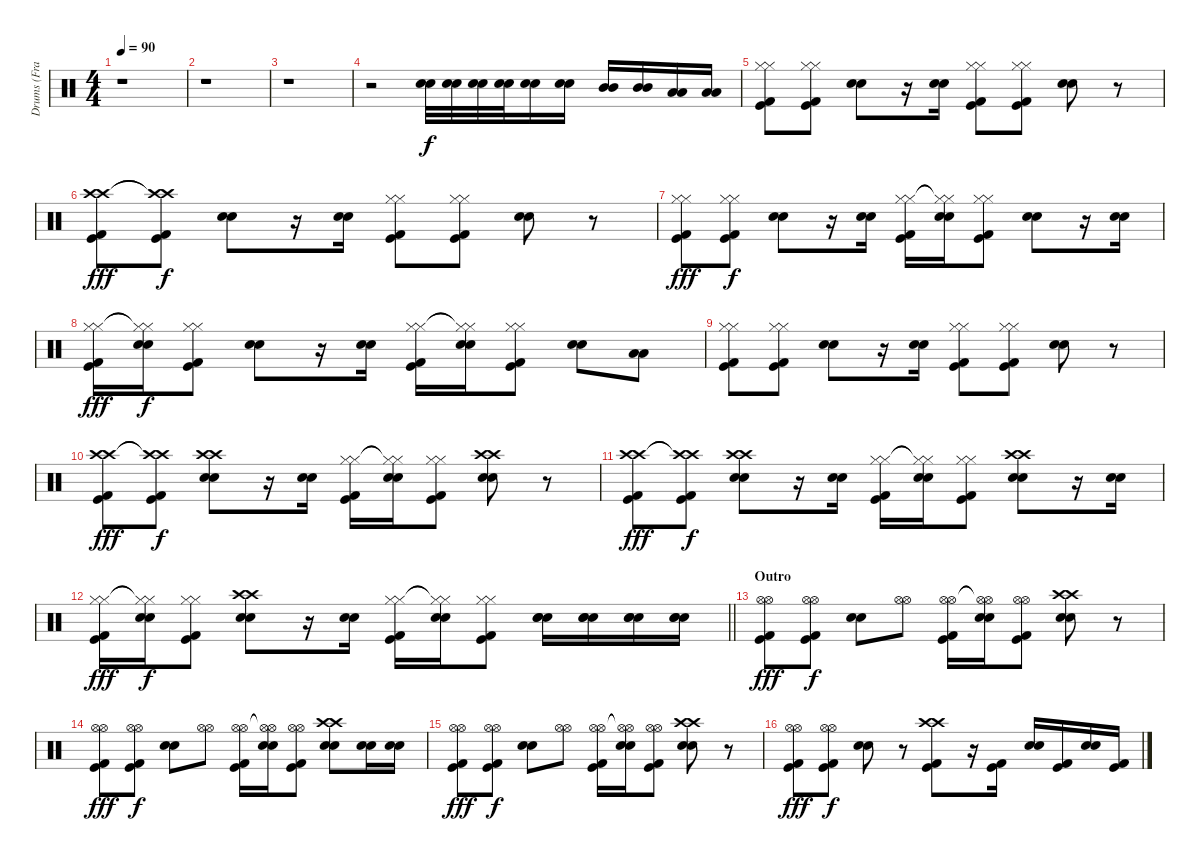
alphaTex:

\track ("Drums (Frank Ferrer)" "Drums (Fra") {instrument percussion}
\staff {score}
\articulation defaults
\ts (4 4)
\tempo 90
\clef neutral
\ks c
r.1{dy f} |
r.1 |
r.1 |
r.2 ("Snare (hit) 2" "Snare (hit) 2").32{volume 16} ("Snare (hit) 2" "Snare (hit) 2").32 ("Snare (hit) 2" "Snare (hit) 2").32 ("Snare (hit) 2" "Snare (hit) 2").32 ("Snare (hit) 2" "Snare (hit) 2").16 ("Snare (hit) 2" "Snare (hit) 2").16 ("Mid Tom (hit)" "Mid Tom (hit)").16 ("Mid Tom (hit)" "Mid Tom (hit)").16 ("Low Tom (hit)" "Low Tom (hit)").16 ("Low Tom (hit)" "Low Tom (hit)").16 |
("Hi-Hat (closed)" "Hi-Hat (closed)" "Kick (hit)" "Kick (hit) 2").8{volume 13} ("Hi-Hat (closed)" "Hi-Hat (closed)" "Kick (hit)" "Kick (hit) 2").8 ("Snare (hit) 2" "Snare (hit) 2").8 r.16 ("Snare (hit) 2" "Snare (hit) 2").16 ("Hi-Hat (closed)" "Hi-Hat (closed)" "Kick (hit)" "Kick (hit) 2").8 ("Hi-Hat (closed)" "Hi-Hat (closed)" "Kick (hit)" "Kick (hit) 2").8 ("Snare (hit) 2" "Snare (hit) 2").8 r.8 |
("Crash high (hit)" "Crash high (hit)" "Kick (hit)" "Kick (hit) 2").8{dy fff} ("Crash high (hit)"{t} "Crash high (hit)"{t} "Kick (hit)" "Kick (hit) 2").8{dy f} ("Snare (hit) 2" "Snare (hit) 2").8 r.16 ("Snare (hit) 2" "Snare (hit) 2").16 ("Hi-Hat (closed)" "Hi-Hat (closed)" "Kick (hit)" "Kick (hit) 2").8 ("Hi-Hat (closed)" "Hi-Hat (closed)" "Kick (hit)" "Kick (hit) 2").8 ("Snare (hit) 2" "Snare (hit) 2").8 r.8 |
("Hi-Hat (closed)" "Hi-Hat (closed)" "Kick (hit)" "Kick (hit) 2").8{dy fff} ("Hi-Hat (closed)" "Hi-Hat (closed)" "Kick (hit)" "Kick (hit) 2").8{dy f} ("Snare (hit) 2" "Snare (hit) 2").8 r.16 ("Snare (hit) 2" "Snare (hit) 2").16 ("Hi-Hat (closed)" "Hi-Hat (closed)" "Kick (hit)" "Kick (hit) 2").16 ("Hi-Hat (closed)"{t} "Hi-Hat (closed)"{t} "Snare (hit) 2" "Snare (hit) 2").16 ("Hi-Hat (closed)" "Hi-Hat (closed)" "Kick (hit)" "Kick (hit) 2").8 ("Snare (hit) 2" "Snare (hit) 2").8 r.16 ("Snare (hit) 2" "Snare (hit) 2").16 |
("Hi-Hat (closed)" "Hi-Hat (closed)" "Kick (hit)" "Kick (hit) 2").16{dy fff} ("Hi-Hat (closed)"{t} "Hi-Hat (closed)"{t} "Snare (hit) 2" "Snare (hit) 2").16{dy f} ("Hi-Hat (closed)" "Hi-Hat (closed)" "Kick (hit)" "Kick (hit) 2").8 ("Snare (hit) 2" "Snare (hit) 2").8 r.16 ("Snare (hit) 2" "Snare (hit) 2").16 ("Hi-Hat (closed)" "Hi-Hat (closed)" "Kick (hit)" "Kick (hit) 2").16 ("Hi-Hat (closed)"{t} "Hi-Hat (closed)"{t} "Snare (hit) 2" "Snare (hit) 2").16 ("Hi-Hat (closed)" "Hi-Hat (closed)" "Kick (hit)" "Kick (hit) 2").8 ("Snare (hit) 2" "Snare (hit) 2").8 ("Low Tom (hit)" "Low Tom (hit)").8 |
("Hi-Hat (closed)" "Hi-Hat (closed)" "Kick (hit)" "Kick (hit) 2").8 ("Hi-Hat (closed)" "Hi-Hat (closed)" "Kick (hit)" "Kick (hit) 2").8 ("Snare (hit) 2" "Snare (hit) 2").8 r.16 ("Snare (hit) 2" "Snare (hit) 2").16 ("Hi-Hat (closed)" "Hi-Hat (closed)" "Kick (hit)" "Kick (hit) 2").8 ("Hi-Hat (closed)" "Hi-Hat (closed)" "Kick (hit)" "Kick (hit) 2").8 ("Snare (hit) 2" "Snare (hit) 2").8 r.8 |
("Crash high (hit)" "Crash high (hit)" "Kick (hit)" "Kick (hit) 2").8{dy fff} ("Crash high (hit)"{t} "Crash high (hit)"{t} "Kick (hit)" "Kick (hit) 2").8{dy f} ("Crash high (hit)" "Crash high (hit)" "Snare (hit) 2" "Snare (hit) 2").8 r.16 ("Snare (hit) 2" "Snare (hit) 2").16 ("Hi-Hat (closed)" "Hi-Hat (closed)" "Kick (hit)" "Kick (hit) 2").16 ("Hi-Hat (closed)"{t} "Hi-Hat (closed)"{t} "Snare (hit) 2" "Snare (hit) 2").16 ("Hi-Hat (closed)" "Hi-Hat (closed)" "Kick (hit)" "Kick (hit) 2").8 ("Crash high (hit)" "Crash high (hit)" "Snare (hit) 2" "Snare (hit) 2").8 r.8 |
("Crash high (hit)" "Crash high (hit)" "Kick (hit)" "Kick (hit) 2").8{dy fff} ("Crash high (hit)"{t} "Crash high (hit)"{t} "Kick (hit)" "Kick (hit) 2").8{dy f} ("Crash high (hit)" "Crash high (hit)" "Snare (hit) 2" "Snare (hit) 2").8 r.16 ("Snare (hit) 2" "Snare (hit) 2").16 ("Hi-Hat (closed)" "Hi-Hat (closed)" "Kick (hit)" "Kick (hit) 2").16 ("Hi-Hat (closed)"{t} "Hi-Hat (closed)"{t} "Snare (hit) 2" "Snare (hit) 2").16 ("Hi-Hat (closed)" "Hi-Hat (closed)" "Kick (hit)" "Kick (hit) 2").8 ("Crash high (hit)" "Crash high (hit)" "Snare (hit) 2" "Snare (hit) 2").8 r.16 ("Snare (hit) 2" "Snare (hit) 2").16 |
\barLineRight lightlight
("Hi-Hat (closed)" "Hi-Hat (closed)" "Kick (hit)" "Kick (hit) 2").16{dy fff} ("Hi-Hat (closed)"{t} "Hi-Hat (closed)"{t} "Snare (hit) 2" "Snare (hit) 2").16{dy f} ("Hi-Hat (closed)" "Hi-Hat (closed)" "Kick (hit)" "Kick (hit) 2").8 ("Crash high (hit)" "Crash high (hit)" "Snare (hit) 2" "Snare (hit) 2").8 r.16 ("Snare (hit) 2" "Snare (hit) 2").16 ("Hi-Hat (closed)" "Hi-Hat (closed)" "Kick (hit)" "Kick (hit) 2").16 ("Hi-Hat (closed)"{t} "Hi-Hat (closed)"{t} "Snare (hit) 2" "Snare (hit) 2").16 ("Hi-Hat (closed)" "Hi-Hat (closed)" "Kick (hit)" "Kick (hit) 2").8 ("Snare (hit) 2" "Snare (hit) 2" "Snare (hit) 2").16 ("Snare (hit) 2" "Snare (hit) 2" "Snare (hit) 2").16 ("Snare (hit) 2" "Snare (hit) 2" "Snare (hit) 2").16 ("Snare (hit) 2" "Snare (hit) 2" "Snare (hit) 2").16 |
\section ("" "Outro")
("Hi-Hat (open)" "Hi-Hat (open)" "Kick (hit)" "Kick (hit) 2").8{dy fff volume 13} ("Hi-Hat (open)" "Hi-Hat (open)" "Kick (hit)" "Kick (hit) 2").8{dy f} ("Snare (hit) 2" "Snare (hit) 2").8 ("Hi-Hat (open)" "Hi-Hat (open)").8 ("Hi-Hat (open)" "Hi-Hat (open)" "Kick (hit)" "Kick (hit) 2").16 ("Hi-Hat (open)"{t} "Hi-Hat (open)"{t} "Snare (hit) 2" "Snare (hit) 2").16 ("Hi-Hat (open)" "Hi-Hat (open)" "Kick (hit)" "Kick (hit) 2").8 ("Crash high (hit)" "Crash high (hit)" "Snare (hit) 2" "Snare (hit) 2").8 r.8 |
("Hi-Hat (open)" "Hi-Hat (open)" "Kick (hit)" "Kick (hit) 2").8{dy fff} ("Hi-Hat (open)" "Hi-Hat (open)" "Kick (hit)" "Kick (hit) 2").8{dy f} ("Snare (hit) 2" "Snare (hit) 2").8 ("Hi-Hat (open)" "Hi-Hat (open)").8 ("Hi-Hat (open)" "Hi-Hat (open)" "Kick (hit)" "Kick (hit) 2").16 ("Hi-Hat (open)"{t} "Hi-Hat (open)"{t} "Snare (hit) 2" "Snare (hit) 2").16 ("Hi-Hat (open)" "Hi-Hat (open)" "Kick (hit)" "Kick (hit) 2").8 ("Crash high (hit)" "Crash high (hit)" "Snare (hit) 2" "Snare (hit) 2").8 ("Snare (hit) 2" "Snare (hit) 2").16 ("Snare (hit) 2" "Snare (hit) 2").16 |
("Hi-Hat (open)" "Hi-Hat (open)" "Kick (hit)" "Kick (hit) 2").8{dy fff} ("Hi-Hat (open)" "Hi-Hat (open)" "Kick (hit)" "Kick (hit) 2").8{dy f} ("Snare (hit) 2" "Snare (hit) 2").8 ("Hi-Hat (open)" "Hi-Hat (open)").8 ("Hi-Hat (open)" "Hi-Hat (open)" "Kick (hit)" "Kick (hit) 2").16 ("Hi-Hat (open)"{t} "Hi-Hat (open)"{t} "Snare (hit) 2" "Snare (hit) 2").16 ("Hi-Hat (open)" "Hi-Hat (open)" "Kick (hit)" "Kick (hit) 2").8 ("Crash high (hit)" "Crash high (hit)" "Snare (hit) 2" "Snare (hit) 2").8 r.8 |
("Hi-Hat (open)" "Hi-Hat (open)" "Kick (hit)" "Kick (hit) 2").8{dy fff} ("Hi-Hat (open)" "Hi-Hat (open)" "Kick (hit)" "Kick (hit) 2").8{dy f} ("Snare (hit) 2" "Snare (hit) 2").8 r.8 ("Crash high (hit)" "Crash high (hit)" "Kick (hit)" "Kick (hit) 2").8 r.16 ("Kick (hit)" "Kick (hit) 2").16 ("Snare (hit) 2" "Snare (hit) 2").16 ("Kick (hit)" "Kick (hit) 2").16 ("Snare (hit) 2" "Snare (hit) 2").16 ("Kick (hit)" "Kick (hit) 2").16
